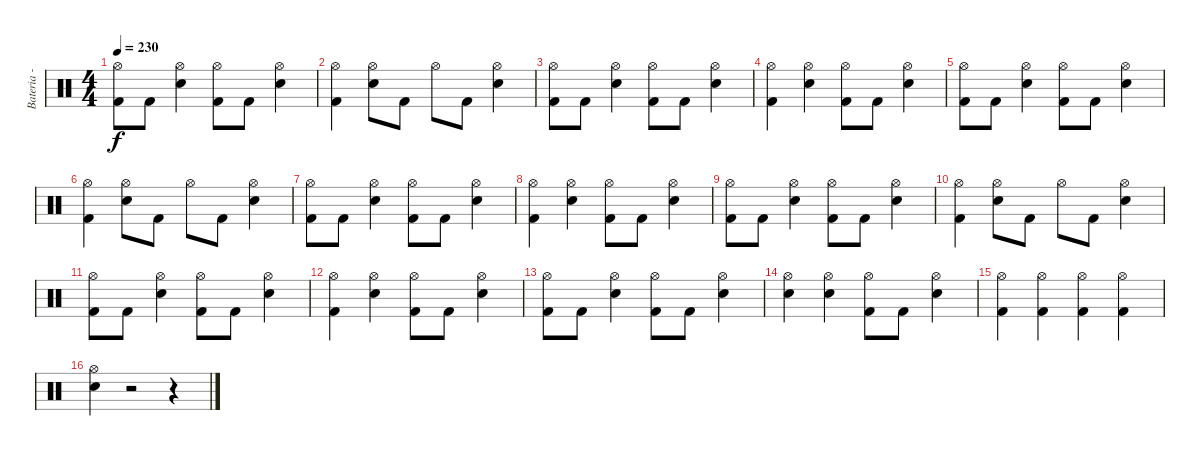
\track ("Bateria - Larzon" "Bateria - ") {instrument percussion}
\staff {score}
\articulation defaults
\ts (4 4)
\tempo 230
\clef neutral
\ks c
("Hi-Hat (open)" "Kick (hit) 2").8{dy f} "Kick (hit) 2".8 ("Hi-Hat (open)" "Electric Snare (hit)").4 ("Hi-Hat (open)" "Kick (hit) 2").8 "Kick (hit) 2".8 ("Hi-Hat (open)" "Electric Snare (hit)").4 |
("Kick (hit) 2" "Hi-Hat (open)").4 ("Hi-Hat (open)" "Electric Snare (hit)").8 "Kick (hit) 2".8 "Hi-Hat (open)".8 "Kick (hit) 2".8 ("Hi-Hat (open)" "Electric Snare (hit)").4 |
("Hi-Hat (open)" "Kick (hit) 2").8 "Kick (hit) 2".8 ("Hi-Hat (open)" "Electric Snare (hit)").4 ("Hi-Hat (open)" "Kick (hit) 2").8 "Kick (hit) 2".8 ("Hi-Hat (open)" "Electric Snare (hit)").4 |
("Kick (hit) 2" "Hi-Hat (open)").4 ("Hi-Hat (open)" "Electric Snare (hit)").4 ("Hi-Hat (open)" "Kick (hit) 2").8 "Kick (hit) 2".8 ("Hi-Hat (open)" "Electric Snare (hit)").4 |
("Hi-Hat (open)" "Kick (hit) 2").8 "Kick (hit) 2".8 ("Hi-Hat (open)" "Electric Snare (hit)").4 ("Hi-Hat (open)" "Kick (hit) 2").8 "Kick (hit) 2".8 ("Hi-Hat (open)" "Electric Snare (hit)").4 |
("Kick (hit) 2" "Hi-Hat (open)").4 ("Hi-Hat (open)" "Electric Snare (hit)").8 "Kick (hit) 2".8 "Hi-Hat (open)".8 "Kick (hit) 2".8 ("Hi-Hat (open)" "Electric Snare (hit)").4 |
("Hi-Hat (open)" "Kick (hit) 2").8 "Kick (hit) 2".8 ("Hi-Hat (open)" "Electric Snare (hit)").4 ("Hi-Hat (open)" "Kick (hit) 2").8 "Kick (hit) 2".8 ("Hi-Hat (open)" "Electric Snare (hit)").4 |
("Kick (hit) 2" "Hi-Hat (open)").4 ("Hi-Hat (open)" "Electric Snare (hit)").4 ("Hi-Hat (open)" "Kick (hit) 2").8 "Kick (hit) 2".8 ("Hi-Hat (open)" "Electric Snare (hit)").4 |
("Hi-Hat (open)" "Kick (hit) 2").8 "Kick (hit) 2".8 ("Hi-Hat (open)" "Electric Snare (hit)").4 ("Hi-Hat (open)" "Kick (hit) 2").8 "Kick (hit) 2".8 ("Hi-Hat (open)" "Electric Snare (hit)").4 |
("Kick (hit) 2" "Hi-Hat (open)").4 ("Hi-Hat (open)" "Electric Snare (hit)").8 "Kick (hit) 2".8 "Hi-Hat (open)".8 "Kick (hit) 2".8 ("Hi-Hat (open)" "Electric Snare (hit)").4 |
("Hi-Hat (open)" "Kick (hit) 2").8 "Kick (hit) 2".8 ("Hi-Hat (open)" "Electric Snare (hit)").4 ("Hi-Hat (open)" "Kick (hit) 2").8 "Kick (hit) 2".8 ("Hi-Hat (open)" "Electric Snare (hit)").4 |
("Kick (hit) 2" "Hi-Hat (open)").4 ("Hi-Hat (open)" "Electric Snare (hit)").4 ("Hi-Hat (open)" "Kick (hit) 2").8 "Kick (hit) 2".8 ("Hi-Hat (open)" "Electric Snare (hit)").4 |
("Hi-Hat (open)" "Kick (hit) 2").8 "Kick (hit) 2".8 ("Hi-Hat (open)" "Electric Snare (hit)").4 ("Hi-Hat (open)" "Kick (hit) 2").8 "Kick (hit) 2".8 ("Hi-Hat (open)" "Electric Snare (hit)").4 |
("Hi-Hat (open)" "Electric Snare (hit)").4 ("Hi-Hat (open)" "Electric Snare (hit)").4 ("Hi-Hat (open)" "Kick (hit) 2").8 "Kick (hit) 2".8 ("Hi-Hat (open)" "Electric Snare (hit)").4 |
("Hi-Hat (open)" "Kick (hit) 2").4 ("Hi-Hat (open)" "Kick (hit) 2").4 ("Hi-Hat (open)" "Kick (hit) 2").4 ("Hi-Hat (open)" "Kick (hit) 2").4 |
("Hi-Hat (open)" "Snare (hit) 2").4 r.2 r.4
